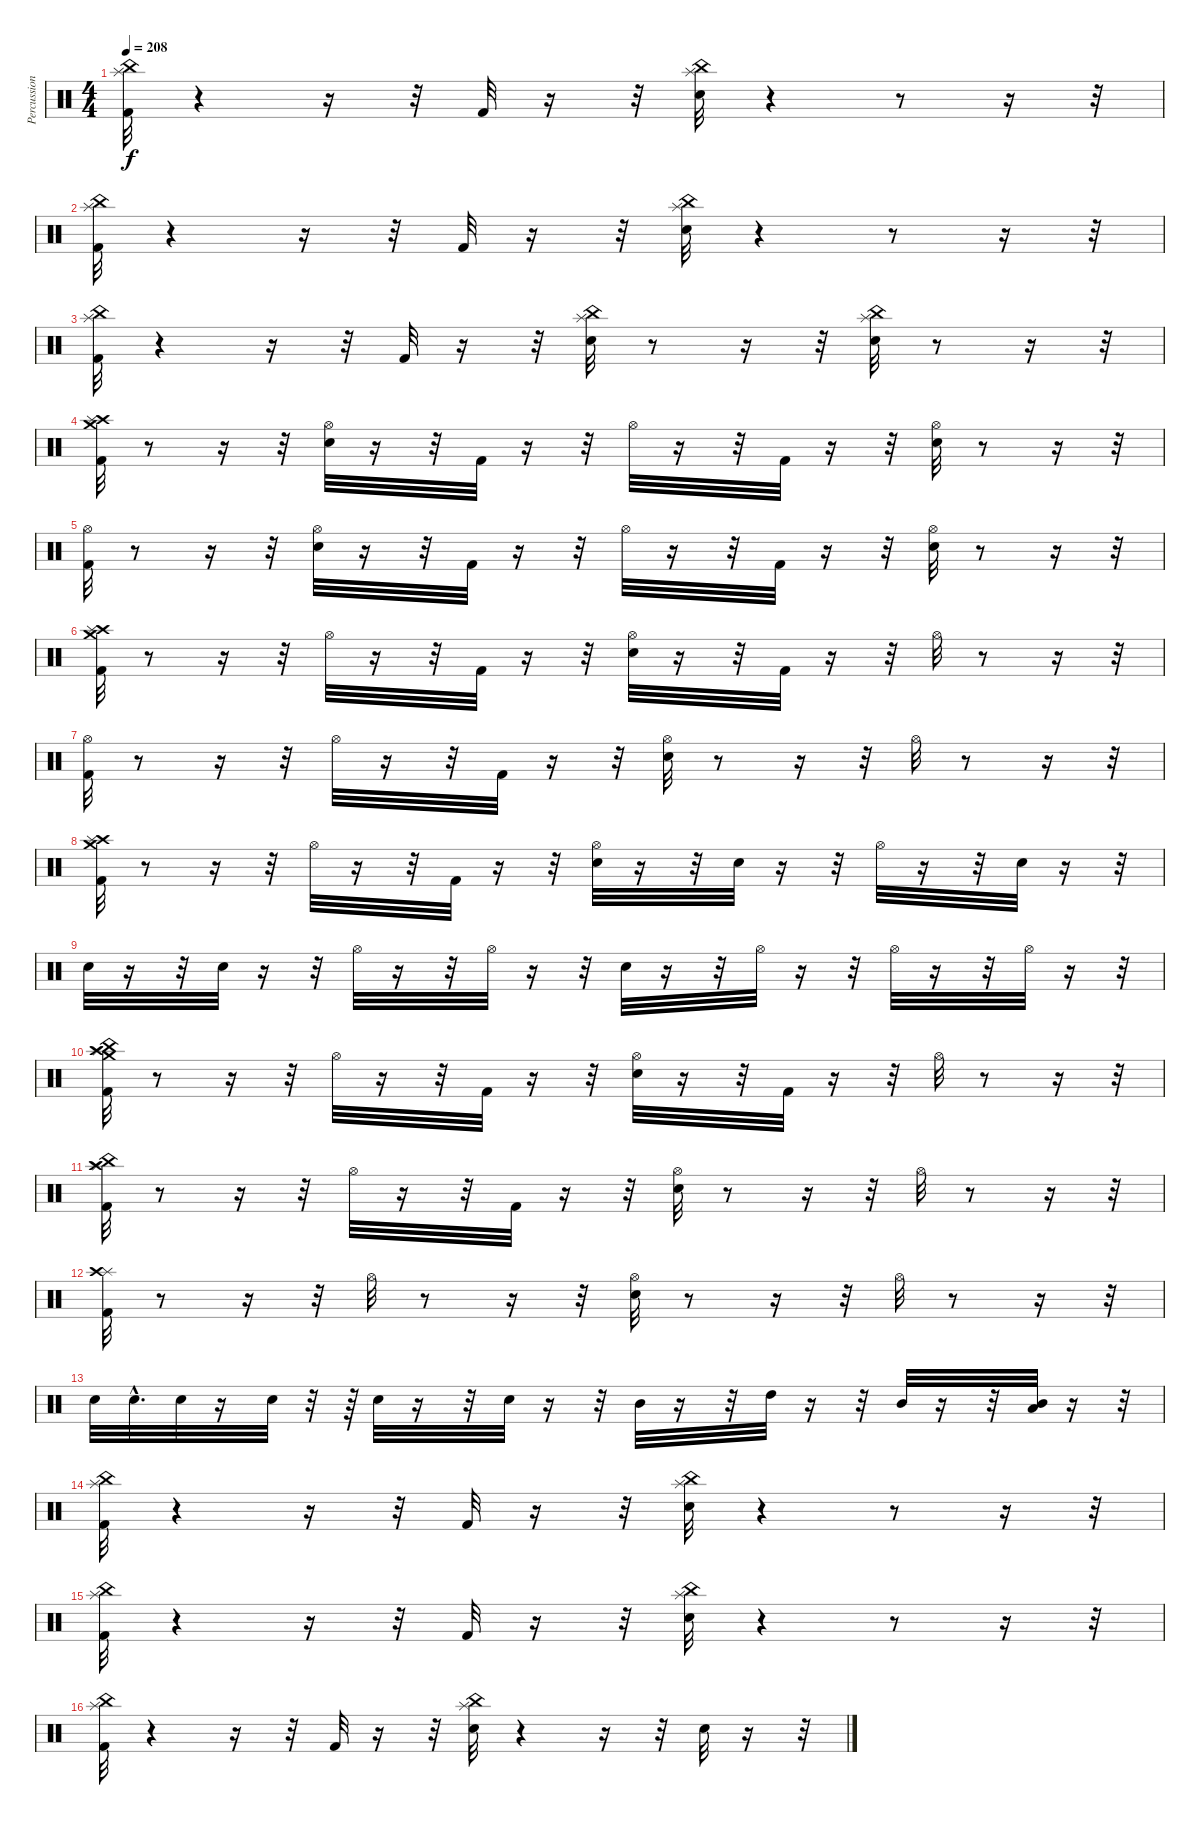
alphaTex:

\track ("Percussion" "Percussion") {instrument percussion}
\staff {score}
\articulation defaults
\ts (4 4)
\tempo 208
\clef neutral
\ks c
("Kick (hit) 2" "China (hit)" "Splash (hit)").32{dy f} r.4 r.16 r.32 "Kick (hit) 2".32 r.16 r.32 ("Snare (hit) 2" "China (hit)" "Splash (hit)").32 r.4 r.8 r.16 r.32 |
("Kick (hit) 2" "China (hit)" "Splash (hit)").32 r.4 r.16 r.32 "Kick (hit) 2".32 r.16 r.32 ("Snare (hit) 2" "China (hit)" "Splash (hit)").32 r.4 r.8 r.16 r.32 |
("Kick (hit) 2" "China (hit)" "Splash (hit)").32 r.4 r.16 r.32 "Kick (hit) 2".32 r.16 r.32 ("Snare (hit) 2" "China (hit)" "Splash (hit)").32 r.8 r.16 r.32 ("Splash (hit)" "China (hit)" "Snare (hit) 2").32 r.8 r.16 r.32 |
("Kick (hit) 2" "Crash high (hit)" "Crash medium (hit)" "Splash (hit)").32 r.8 r.16 r.32 ("Snare (hit) 2" "Hi-Hat (open)").32 r.16 r.32 "Kick (hit) 2".32 r.16 r.32 "Hi-Hat (open)".32 r.16 r.32 "Kick (hit) 2".32 r.16 r.32 ("Snare (hit) 2" "Hi-Hat (open)").32 r.8 r.16 r.32 |
("Kick (hit) 2" "Hi-Hat (open)").32 r.8 r.16 r.32 ("Snare (hit) 2" "Hi-Hat (open)").32 r.16 r.32 "Kick (hit) 2".32 r.16 r.32 "Hi-Hat (open)".32 r.16 r.32 "Kick (hit) 2".32 r.16 r.32 ("Snare (hit) 2" "Hi-Hat (open)").32 r.8 r.16 r.32 |
("Crash high (hit)" "Crash medium (hit)" "Splash (hit)" "Kick (hit) 2").32 r.8 r.16 r.32 "Hi-Hat (open)".32 r.16 r.32 "Kick (hit) 2".32 r.16 r.32 ("Hi-Hat (open)" "Snare (hit) 2").32 r.16 r.32 "Kick (hit) 2".32 r.16 r.32 "Hi-Hat (open)".32 r.8 r.16 r.32 |
("Hi-Hat (open)" "Kick (hit) 2").32 r.8 r.16 r.32 "Hi-Hat (open)".32 r.16 r.32 "Kick (hit) 2".32 r.16 r.32 ("Hi-Hat (open)" "Snare (hit) 2").32 r.8 r.16 r.32 "Hi-Hat (open)".32 r.8 r.16 r.32 |
("Crash high (hit)" "Splash (hit)" "Crash medium (hit)" "Kick (hit) 2").32 r.8 r.16 r.32 "Hi-Hat (open)".32 r.16 r.32 "Kick (hit) 2".32 r.16 r.32 ("Hi-Hat (open)" "Snare (hit) 2").32 r.16 r.32 "Snare (hit) 2".32 r.16 r.32 "Hi-Hat (open)".32 r.16 r.32 "Snare (hit) 2".32 r.16 r.32 |
"Snare (hit) 2".32 r.16 r.32 "Snare (hit) 2".32 r.16 r.32 "Hi-Hat (open)".32 r.16 r.32 "Hi-Hat (open)".32 r.16 r.32 "Snare (hit) 2".32 r.16 r.32 "Hi-Hat (open)".32 r.16 r.32 "Hi-Hat (open)".32 r.16 r.32 "Hi-Hat (open)".32 r.16 r.32 |
("China (hit)" "Kick (hit) 2" "Crash high (hit)" "Splash (hit)" "Crash medium (hit)").32 r.8 r.16 r.32 "Hi-Hat (open)".32 r.16 r.32 "Kick (hit) 2".32 r.16 r.32 ("Hi-Hat (open)" "Snare (hit) 2").32 r.16 r.32 "Kick (hit) 2".32 r.16 r.32 "Hi-Hat (open)".32 r.8 r.16 r.32 |
("China (hit)" "Splash (hit)" "Crash high (hit)" "Kick (hit) 2").32 r.8 r.16 r.32 "Hi-Hat (open)".32 r.16 r.32 "Kick (hit) 2".32 r.16 r.32 ("Hi-Hat (open)" "Snare (hit) 2").32 r.8 r.16 r.32 "Hi-Hat (open)".32 r.8 r.16 r.32 |
("Kick (hit) 2" "Splash (hit)" "Crash high (hit)").32 r.8 r.16 r.32 "Hi-Hat (open)".32 r.8 r.16 r.32 ("Hi-Hat (open)" "Snare (hit) 2").32 r.8 r.16 r.32 "Hi-Hat (open)".32 r.8 r.16 r.32 |
"Snare (hit) 2".32 "Snare (hit) 2"{hac}.32{d} "Snare (hit) 2".32 r.16 "Snare (hit) 2".32 r.32 r.64 "Snare (hit) 2".32 r.16 r.32 "Snare (hit) 2".32 r.16 r.32 "Mid Tom (hit)".32 r.16 r.32 "High Tom (hit)".32 r.16 r.32 "Mid Tom (hit)".32 r.16 r.32 ("Mid Tom (hit)" "Low Tom (hit)").32 r.16 r.32 |
("Kick (hit) 2" "China (hit)" "Splash (hit)").32 r.4 r.16 r.32 "Kick (hit) 2".32 r.16 r.32 ("Snare (hit) 2" "China (hit)" "Splash (hit)").32 r.4 r.8 r.16 r.32 |
("Kick (hit) 2" "China (hit)" "Splash (hit)").32 r.4 r.16 r.32 "Kick (hit) 2".32 r.16 r.32 ("Snare (hit) 2" "China (hit)" "Splash (hit)").32 r.4 r.8 r.16 r.32 |
("Kick (hit) 2" "China (hit)" "Splash (hit)").32 r.4 r.16 r.32 "Kick (hit) 2".32 r.16 r.32 ("Snare (hit) 2" "China (hit)" "Splash (hit)").32 r.4 r.16 r.32 "Snare (hit) 2".32 r.16 r.32
